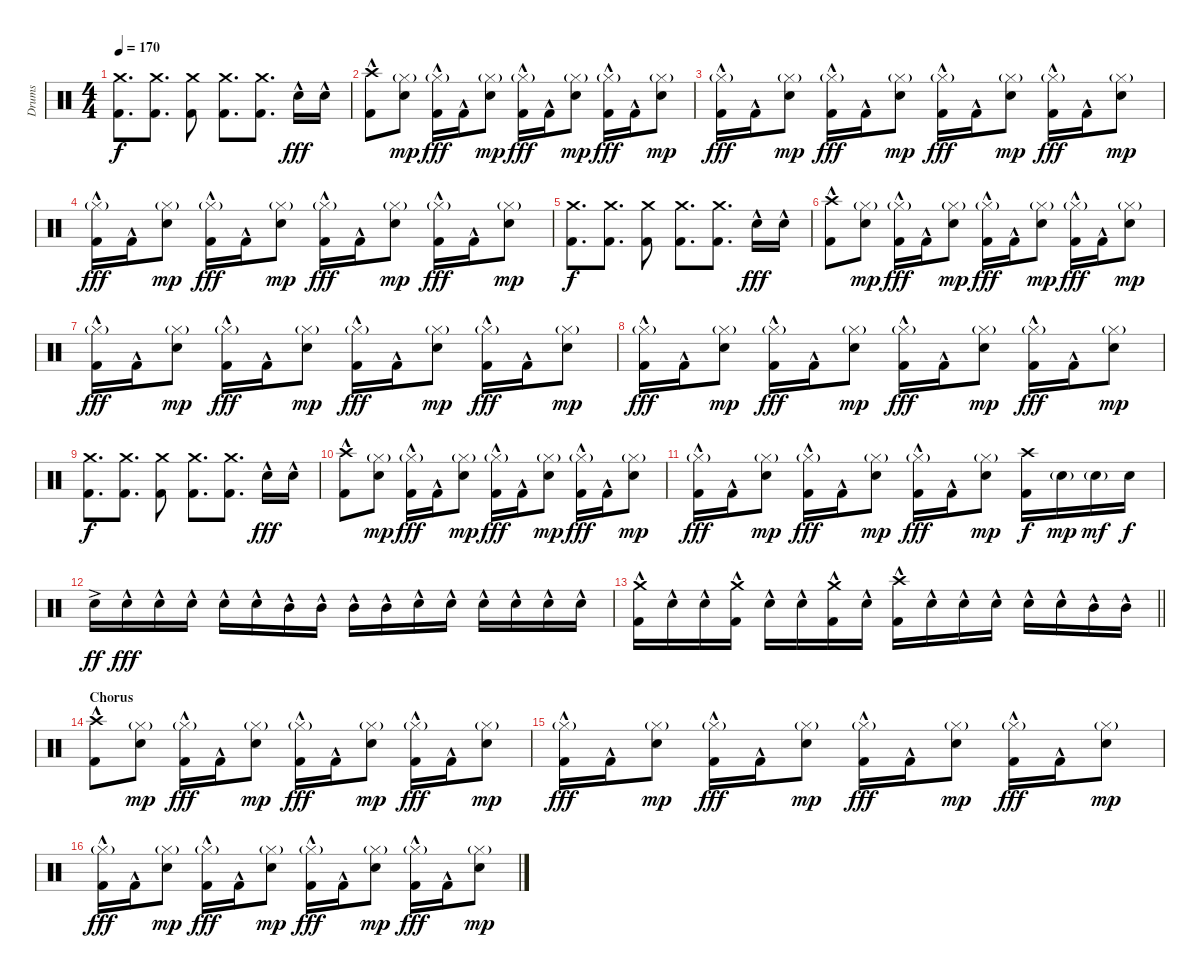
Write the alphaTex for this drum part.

\track ("Drums" "Drums") {instrument percussion}
\staff {score}
\articulation defaults
\ts (4 4)
\tempo 170
\clef neutral
\ks c
("Crash medium (hit)" "Kick (hit) 2").8{d dy f} ("Crash medium (hit)" "Kick (hit) 2").8{d} ("Crash medium (hit)" "Kick (hit) 2").8 ("Crash medium (hit)" "Kick (hit) 2").8{d} ("Crash medium (hit)" "Kick (hit) 2").8{d} "Snare (hit) 2"{hac}.16{dy fff} "Snare (hit) 2"{hac}.16 |
("Crash high (hit)" "Kick (hit) 2"{hac}).8 ("Hi-Hat (closed)"{g} "Snare (hit) 2").8{dy mp} ("Hi-Hat (closed)"{g} "Kick (hit) 2"{hac}).16{dy fff} "Kick (hit) 2"{hac}.16 ("Hi-Hat (closed)"{g} "Snare (hit) 2").8{dy mp} ("Hi-Hat (closed)"{g} "Kick (hit) 2"{hac}).16{dy fff} "Kick (hit) 2"{hac}.16 ("Hi-Hat (closed)"{g} "Snare (hit) 2").8{dy mp} ("Hi-Hat (closed)"{g} "Kick (hit) 2"{hac}).16{dy fff} "Kick (hit) 2"{hac}.16 ("Hi-Hat (closed)"{g} "Snare (hit) 2").8{dy mp} |
("Hi-Hat (closed)"{g} "Kick (hit) 2"{hac}).16{dy fff} "Kick (hit) 2"{hac}.16 ("Hi-Hat (closed)"{g} "Snare (hit) 2").8{dy mp} ("Hi-Hat (closed)"{g} "Kick (hit) 2"{hac}).16{dy fff} "Kick (hit) 2"{hac}.16 ("Hi-Hat (closed)"{g} "Snare (hit) 2").8{dy mp} ("Hi-Hat (closed)"{g} "Kick (hit) 2"{hac}).16{dy fff} "Kick (hit) 2"{hac}.16 ("Hi-Hat (closed)"{g} "Snare (hit) 2").8{dy mp} ("Hi-Hat (closed)"{g} "Kick (hit) 2"{hac}).16{dy fff} "Kick (hit) 2"{hac}.16 ("Hi-Hat (closed)"{g} "Snare (hit) 2").8{dy mp} |
("Hi-Hat (closed)"{g} "Kick (hit) 2"{hac}).16{dy fff} "Kick (hit) 2"{hac}.16 ("Hi-Hat (closed)"{g} "Snare (hit) 2").8{dy mp} ("Hi-Hat (closed)"{g} "Kick (hit) 2"{hac}).16{dy fff} "Kick (hit) 2"{hac}.16 ("Hi-Hat (closed)"{g} "Snare (hit) 2").8{dy mp} ("Hi-Hat (closed)"{g} "Kick (hit) 2"{hac}).16{dy fff} "Kick (hit) 2"{hac}.16 ("Hi-Hat (closed)"{g} "Snare (hit) 2").8{dy mp} ("Hi-Hat (closed)"{g} "Kick (hit) 2"{hac}).16{dy fff} "Kick (hit) 2"{hac}.16 ("Hi-Hat (closed)"{g} "Snare (hit) 2").8{dy mp} |
("Crash medium (hit)" "Kick (hit) 2").8{d dy f} ("Crash medium (hit)" "Kick (hit) 2").8{d} ("Crash medium (hit)" "Kick (hit) 2").8 ("Crash medium (hit)" "Kick (hit) 2").8{d} ("Crash medium (hit)" "Kick (hit) 2").8{d} "Snare (hit) 2"{hac}.16{dy fff} "Snare (hit) 2"{hac}.16 |
("Crash high (hit)" "Kick (hit) 2"{hac}).8 ("Hi-Hat (closed)"{g} "Snare (hit) 2").8{dy mp} ("Hi-Hat (closed)"{g} "Kick (hit) 2"{hac}).16{dy fff} "Kick (hit) 2"{hac}.16 ("Hi-Hat (closed)"{g} "Snare (hit) 2").8{dy mp} ("Hi-Hat (closed)"{g} "Kick (hit) 2"{hac}).16{dy fff} "Kick (hit) 2"{hac}.16 ("Hi-Hat (closed)"{g} "Snare (hit) 2").8{dy mp} ("Hi-Hat (closed)"{g} "Kick (hit) 2"{hac}).16{dy fff} "Kick (hit) 2"{hac}.16 ("Hi-Hat (closed)"{g} "Snare (hit) 2").8{dy mp} |
("Hi-Hat (closed)"{g} "Kick (hit) 2"{hac}).16{dy fff} "Kick (hit) 2"{hac}.16 ("Hi-Hat (closed)"{g} "Snare (hit) 2").8{dy mp} ("Hi-Hat (closed)"{g} "Kick (hit) 2"{hac}).16{dy fff} "Kick (hit) 2"{hac}.16 ("Hi-Hat (closed)"{g} "Snare (hit) 2").8{dy mp} ("Hi-Hat (closed)"{g} "Kick (hit) 2"{hac}).16{dy fff} "Kick (hit) 2"{hac}.16 ("Hi-Hat (closed)"{g} "Snare (hit) 2").8{dy mp} ("Hi-Hat (closed)"{g} "Kick (hit) 2"{hac}).16{dy fff} "Kick (hit) 2"{hac}.16 ("Hi-Hat (closed)"{g} "Snare (hit) 2").8{dy mp} |
("Hi-Hat (closed)"{g} "Kick (hit) 2"{hac}).16{dy fff} "Kick (hit) 2"{hac}.16 ("Hi-Hat (closed)"{g} "Snare (hit) 2").8{dy mp} ("Hi-Hat (closed)"{g} "Kick (hit) 2"{hac}).16{dy fff} "Kick (hit) 2"{hac}.16 ("Hi-Hat (closed)"{g} "Snare (hit) 2").8{dy mp} ("Hi-Hat (closed)"{g} "Kick (hit) 2"{hac}).16{dy fff} "Kick (hit) 2"{hac}.16 ("Hi-Hat (closed)"{g} "Snare (hit) 2").8{dy mp} ("Hi-Hat (closed)"{g} "Kick (hit) 2"{hac}).16{dy fff} "Kick (hit) 2"{hac}.16 ("Hi-Hat (closed)"{g} "Snare (hit) 2").8{dy mp} |
("Crash medium (hit)" "Kick (hit) 2").8{d dy f} ("Crash medium (hit)" "Kick (hit) 2").8{d} ("Crash medium (hit)" "Kick (hit) 2").8 ("Crash medium (hit)" "Kick (hit) 2").8{d} ("Crash medium (hit)" "Kick (hit) 2").8{d} "Snare (hit) 2"{hac}.16{dy fff} "Snare (hit) 2"{hac}.16 |
("Crash high (hit)" "Kick (hit) 2"{hac}).8 ("Hi-Hat (closed)"{g} "Snare (hit) 2").8{dy mp} ("Hi-Hat (closed)"{g} "Kick (hit) 2"{hac}).16{dy fff} "Kick (hit) 2"{hac}.16 ("Hi-Hat (closed)"{g} "Snare (hit) 2").8{dy mp} ("Hi-Hat (closed)"{g} "Kick (hit) 2"{hac}).16{dy fff} "Kick (hit) 2"{hac}.16 ("Hi-Hat (closed)"{g} "Snare (hit) 2").8{dy mp} ("Hi-Hat (closed)"{g} "Kick (hit) 2"{hac}).16{dy fff} "Kick (hit) 2"{hac}.16 ("Hi-Hat (closed)"{g} "Snare (hit) 2").8{dy mp} |
("Hi-Hat (closed)"{g} "Kick (hit) 2"{hac}).16{dy fff} "Kick (hit) 2"{hac}.16 ("Hi-Hat (closed)"{g} "Snare (hit) 2").8{dy mp} ("Hi-Hat (closed)"{g} "Kick (hit) 2"{hac}).16{dy fff} "Kick (hit) 2"{hac}.16 ("Hi-Hat (closed)"{g} "Snare (hit) 2").8{dy mp} ("Hi-Hat (closed)"{g} "Kick (hit) 2"{hac}).16{dy fff} "Kick (hit) 2"{hac}.16 ("Hi-Hat (closed)"{g} "Snare (hit) 2").8{dy mp} ("Crash high (hit)" "Kick (hit) 2").16{dy f} "Snare (hit) 2"{g}.16{dy mp} "Snare (hit) 2"{g}.16{dy mf} "Snare (hit) 2".16{dy f} |
"Snare (hit) 2"{ac}.16{dy ff} "Snare (hit) 2"{hac}.16{dy fff} "Snare (hit) 2"{hac}.16 "Snare (hit) 2"{hac}.16 "Snare (hit) 2"{hac}.16 "Snare (hit) 2"{hac}.16 "Mid Tom (hit)"{hac}.16 "Mid Tom (hit)"{hac}.16 "Mid Tom (hit)"{hac}.16 "Mid Tom (hit)"{hac}.16 "Snare (hit) 2"{hac}.16 "Snare (hit) 2"{hac}.16 "Snare (hit) 2"{hac}.16 "Snare (hit) 2"{hac}.16 "Snare (hit) 2"{hac}.16 "Snare (hit) 2"{hac}.16 |
\barLineRight lightlight
("Crash medium (hit)" "Kick (hit) 2"{hac}).16 "Snare (hit) 2"{hac}.16 "Snare (hit) 2"{hac}.16 ("Crash medium (hit)" "Kick (hit) 2"{hac}).16 "Snare (hit) 2"{hac}.16 "Snare (hit) 2"{hac}.16 ("Crash medium (hit)" "Kick (hit) 2"{hac}).16 "Snare (hit) 2"{hac}.16 ("Crash high (hit)" "Kick (hit) 2"{hac}).16 "Snare (hit) 2"{hac}.16 "Snare (hit) 2"{hac}.16 "Snare (hit) 2"{hac}.16 "Snare (hit) 2"{hac}.16 "Snare (hit) 2"{hac}.16 "Mid Tom (hit)"{hac}.16 "Mid Tom (hit)"{hac}.16 |
\section ("" "Chorus")
("Crash high (hit)" "Kick (hit) 2"{hac}).8 ("Hi-Hat (closed)"{g} "Snare (hit) 2").8{dy mp} ("Hi-Hat (closed)"{g} "Kick (hit) 2"{hac}).16{dy fff} "Kick (hit) 2"{hac}.16 ("Hi-Hat (closed)"{g} "Snare (hit) 2").8{dy mp} ("Hi-Hat (closed)"{g} "Kick (hit) 2"{hac}).16{dy fff} "Kick (hit) 2"{hac}.16 ("Hi-Hat (closed)"{g} "Snare (hit) 2").8{dy mp} ("Hi-Hat (closed)"{g} "Kick (hit) 2"{hac}).16{dy fff} "Kick (hit) 2"{hac}.16 ("Hi-Hat (closed)"{g} "Snare (hit) 2").8{dy mp} |
("Hi-Hat (closed)"{g} "Kick (hit) 2"{hac}).16{dy fff} "Kick (hit) 2"{hac}.16 ("Hi-Hat (closed)"{g} "Snare (hit) 2").8{dy mp} ("Hi-Hat (closed)"{g} "Kick (hit) 2"{hac}).16{dy fff} "Kick (hit) 2"{hac}.16 ("Hi-Hat (closed)"{g} "Snare (hit) 2").8{dy mp} ("Hi-Hat (closed)"{g} "Kick (hit) 2"{hac}).16{dy fff} "Kick (hit) 2"{hac}.16 ("Hi-Hat (closed)"{g} "Snare (hit) 2").8{dy mp} ("Hi-Hat (closed)"{g} "Kick (hit) 2"{hac}).16{dy fff} "Kick (hit) 2"{hac}.16 ("Hi-Hat (closed)"{g} "Snare (hit) 2").8{dy mp} |
("Hi-Hat (closed)"{g} "Kick (hit) 2"{hac}).16{dy fff} "Kick (hit) 2"{hac}.16 ("Hi-Hat (closed)"{g} "Snare (hit) 2").8{dy mp} ("Hi-Hat (closed)"{g} "Kick (hit) 2"{hac}).16{dy fff} "Kick (hit) 2"{hac}.16 ("Hi-Hat (closed)"{g} "Snare (hit) 2").8{dy mp} ("Hi-Hat (closed)"{g} "Kick (hit) 2"{hac}).16{dy fff} "Kick (hit) 2"{hac}.16 ("Hi-Hat (closed)"{g} "Snare (hit) 2").8{dy mp} ("Hi-Hat (closed)"{g} "Kick (hit) 2"{hac}).16{dy fff} "Kick (hit) 2"{hac}.16 ("Hi-Hat (closed)"{g} "Snare (hit) 2").8{dy mp}
